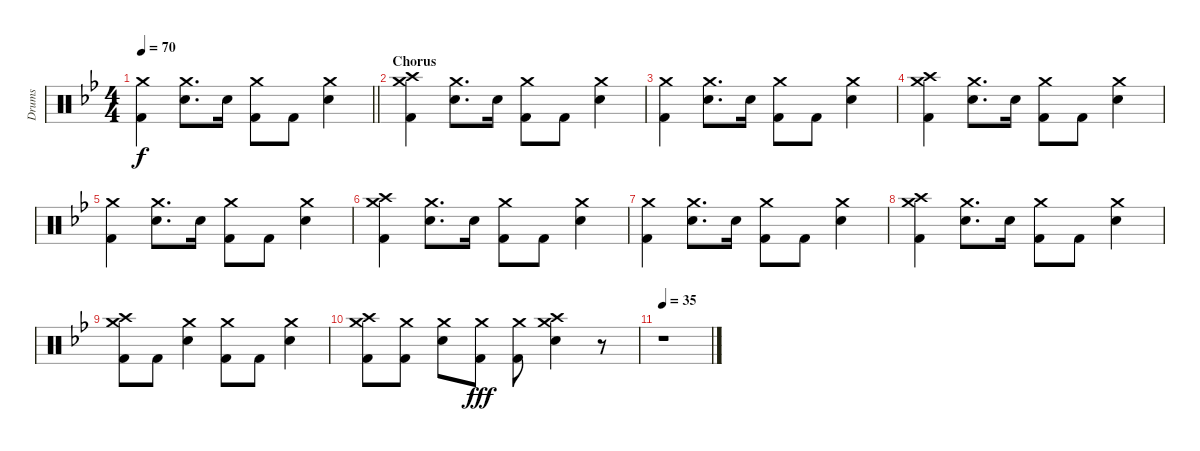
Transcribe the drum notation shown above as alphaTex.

\track ("Drums" "Drums") {instrument percussion}
\staff {score}
\articulation defaults
\ts (4 4)
\tempo 70
\clef neutral
\barLineRight lightlight
\ks gminor
("Crash medium (hit)" "Kick (hit) 2").4{dy f} ("Crash medium (hit)" "Snare (hit) 2").8{d} "Snare (hit) 2".16 ("Crash medium (hit)" "Kick (hit) 2").8 "Kick (hit) 2".8 ("Crash medium (hit)" "Snare (hit) 2").4 |
\section ("" "Chorus")
("Crash medium (hit)" "Crash high (hit)" "Kick (hit) 2").4 ("Crash medium (hit)" "Snare (hit) 2").8{d} "Snare (hit) 2".16 ("Crash medium (hit)" "Kick (hit) 2").8 "Kick (hit) 2".8 ("Crash medium (hit)" "Snare (hit) 2").4 |
("Crash medium (hit)" "Kick (hit) 2").4 ("Crash medium (hit)" "Snare (hit) 2").8{d} "Snare (hit) 2".16 ("Crash medium (hit)" "Kick (hit) 2").8 "Kick (hit) 2".8 ("Crash medium (hit)" "Snare (hit) 2").4 |
("Crash medium (hit)" "Crash high (hit)" "Kick (hit) 2").4 ("Crash medium (hit)" "Snare (hit) 2").8{d} "Snare (hit) 2".16 ("Crash medium (hit)" "Kick (hit) 2").8 "Kick (hit) 2".8 ("Crash medium (hit)" "Snare (hit) 2").4 |
("Crash medium (hit)" "Kick (hit) 2").4 ("Crash medium (hit)" "Snare (hit) 2").8{d} "Snare (hit) 2".16 ("Crash medium (hit)" "Kick (hit) 2").8 "Kick (hit) 2".8 ("Crash medium (hit)" "Snare (hit) 2").4 |
("Crash medium (hit)" "Crash high (hit)" "Kick (hit) 2").4 ("Crash medium (hit)" "Snare (hit) 2").8{d} "Snare (hit) 2".16 ("Crash medium (hit)" "Kick (hit) 2").8 "Kick (hit) 2".8 ("Crash medium (hit)" "Snare (hit) 2").4 |
("Crash medium (hit)" "Kick (hit) 2").4 ("Crash medium (hit)" "Snare (hit) 2").8{d} "Snare (hit) 2".16 ("Crash medium (hit)" "Kick (hit) 2").8 "Kick (hit) 2".8 ("Crash medium (hit)" "Snare (hit) 2").4 |
("Crash medium (hit)" "Crash high (hit)" "Kick (hit) 2").4 ("Crash medium (hit)" "Snare (hit) 2").8{d} "Snare (hit) 2".16 ("Crash medium (hit)" "Kick (hit) 2").8 "Kick (hit) 2".8 ("Crash medium (hit)" "Snare (hit) 2").4 |
("Crash medium (hit)" "Crash high (hit)" "Kick (hit) 2").8 "Kick (hit) 2".8 ("Crash medium (hit)" "Snare (hit) 2").4 ("Crash medium (hit)" "Kick (hit) 2").8 "Kick (hit) 2".8 ("Crash medium (hit)" "Snare (hit) 2").4 |
("Crash medium (hit)" "Crash high (hit)" "Kick (hit) 2").8 ("Crash medium (hit)" "Kick (hit) 2").8 ("Crash medium (hit)" "Snare (hit) 2").8 ("Crash medium (hit)" "Kick (hit) 2").8{dy fff} ("Crash medium (hit)" "Kick (hit) 2").8 ("Crash medium (hit)" "Crash high (hit)" "Snare (hit) 2").4 r.8 |
\tempo 35
r.1
